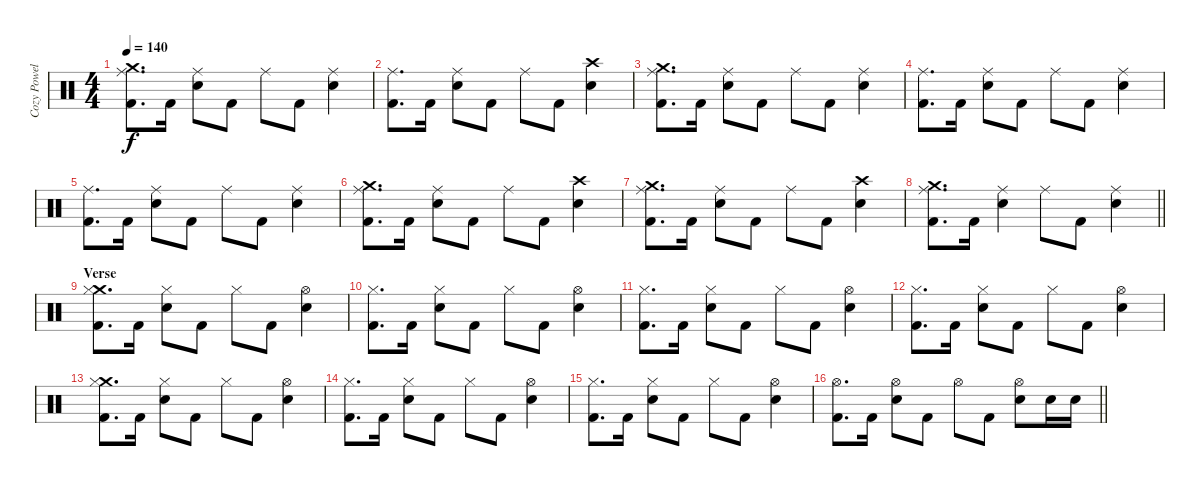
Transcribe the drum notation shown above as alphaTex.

\track ("Cozy Powell" "Cozy Powel") {instrument percussion}
\staff {score}
\articulation defaults
\ts (4 4)
\tempo 140
\clef neutral
\ks c
("Crash medium (hit)" "Ride (middle)" "Kick (hit) 2").8{d dy f} "Kick (hit) 2".16 ("Ride (middle)" "Snare (hit) 2").8 "Kick (hit) 2".8 "Ride (middle)".8 "Kick (hit) 2".8 ("Ride (middle)" "Snare (hit) 2").4 |
("Ride (middle)" "Kick (hit) 2").8{d} "Kick (hit) 2".16 ("Ride (middle)" "Snare (hit) 2").8 "Kick (hit) 2".8 "Ride (middle)".8 "Kick (hit) 2".8 ("Crash high (hit)" "Snare (hit) 2").4 |
("Crash medium (hit)" "Ride (middle)" "Kick (hit) 2").8{d} "Kick (hit) 2".16 ("Ride (middle)" "Snare (hit) 2").8 "Kick (hit) 2".8 "Ride (middle)".8 "Kick (hit) 2".8 ("Ride (middle)" "Snare (hit) 2").4 |
("Ride (middle)" "Kick (hit) 2").8{d} "Kick (hit) 2".16 ("Ride (middle)" "Snare (hit) 2").8 "Kick (hit) 2".8 "Ride (middle)".8 "Kick (hit) 2".8 ("Ride (middle)" "Snare (hit) 2").4 |
("Ride (middle)" "Kick (hit) 2").8{d} "Kick (hit) 2".16 ("Ride (middle)" "Snare (hit) 2").8 "Kick (hit) 2".8 "Ride (middle)".8 "Kick (hit) 2".8 ("Ride (middle)" "Snare (hit) 2").4 |
("Crash medium (hit)" "Ride (middle)" "Kick (hit) 2").8{d} "Kick (hit) 2".16 ("Ride (middle)" "Snare (hit) 2").8 "Kick (hit) 2".8 "Ride (middle)".8 "Kick (hit) 2".8 ("Crash high (hit)" "Snare (hit) 2").4 |
("Crash medium (hit)" "Ride (middle)" "Kick (hit) 2").8{d} "Kick (hit) 2".16 ("Ride (middle)" "Snare (hit) 2").8 "Kick (hit) 2".8 "Ride (middle)".8 "Kick (hit) 2".8 ("Crash high (hit)" "Snare (hit) 2").4 |
\barLineRight lightlight
("Crash medium (hit)" "Ride (middle)" "Kick (hit) 2").8{d} "Kick (hit) 2".16 ("Ride (middle)" "Snare (hit) 2").4 "Ride (middle)".8 "Kick (hit) 2".8 ("Ride (middle)" "Snare (hit) 2").4 |
\section ("" "Verse")
("Crash medium (hit)" "Hi-Hat (closed)" "Kick (hit) 2").8{d} "Kick (hit) 2".16 ("Hi-Hat (closed)" "Snare (hit) 2").8 "Kick (hit) 2".8 "Hi-Hat (closed)".8 "Kick (hit) 2".8 ("Hi-Hat (open)" "Snare (hit) 2").4 |
("Hi-Hat (closed)" "Kick (hit) 2").8{d} "Kick (hit) 2".16 ("Hi-Hat (closed)" "Snare (hit) 2").8 "Kick (hit) 2".8 "Hi-Hat (closed)".8 "Kick (hit) 2".8 ("Hi-Hat (open)" "Snare (hit) 2").4 |
("Hi-Hat (closed)" "Kick (hit) 2").8{d} "Kick (hit) 2".16 ("Hi-Hat (closed)" "Snare (hit) 2").8 "Kick (hit) 2".8 "Hi-Hat (closed)".8 "Kick (hit) 2".8 ("Hi-Hat (open)" "Snare (hit) 2").4 |
("Hi-Hat (closed)" "Kick (hit) 2").8{d} "Kick (hit) 2".16 ("Hi-Hat (closed)" "Snare (hit) 2").8 "Kick (hit) 2".8 "Hi-Hat (closed)".8 "Kick (hit) 2".8 ("Hi-Hat (open)" "Snare (hit) 2").4 |
("Crash medium (hit)" "Hi-Hat (closed)" "Kick (hit) 2").8{d} "Kick (hit) 2".16 ("Hi-Hat (closed)" "Snare (hit) 2").8 "Kick (hit) 2".8 "Hi-Hat (closed)".8 "Kick (hit) 2".8 ("Hi-Hat (open)" "Snare (hit) 2").4 |
("Hi-Hat (closed)" "Kick (hit) 2").8{d} "Kick (hit) 2".16 ("Hi-Hat (closed)" "Snare (hit) 2").8 "Kick (hit) 2".8 "Hi-Hat (closed)".8 "Kick (hit) 2".8 ("Hi-Hat (open)" "Snare (hit) 2").4 |
("Hi-Hat (closed)" "Kick (hit) 2").8{d} "Kick (hit) 2".16 ("Hi-Hat (closed)" "Snare (hit) 2").8 "Kick (hit) 2".8 "Hi-Hat (closed)".8 "Kick (hit) 2".8 ("Hi-Hat (open)" "Snare (hit) 2").4 |
\barLineRight lightlight
("Hi-Hat (open)" "Kick (hit) 2").8{d} "Kick (hit) 2".16 ("Hi-Hat (open)" "Snare (hit) 2").8 "Kick (hit) 2".8 "Hi-Hat (open)".8 "Kick (hit) 2".8 ("Hi-Hat (open)" "Snare (hit) 2").8 "Snare (hit) 2".16 "Snare (hit) 2".16
